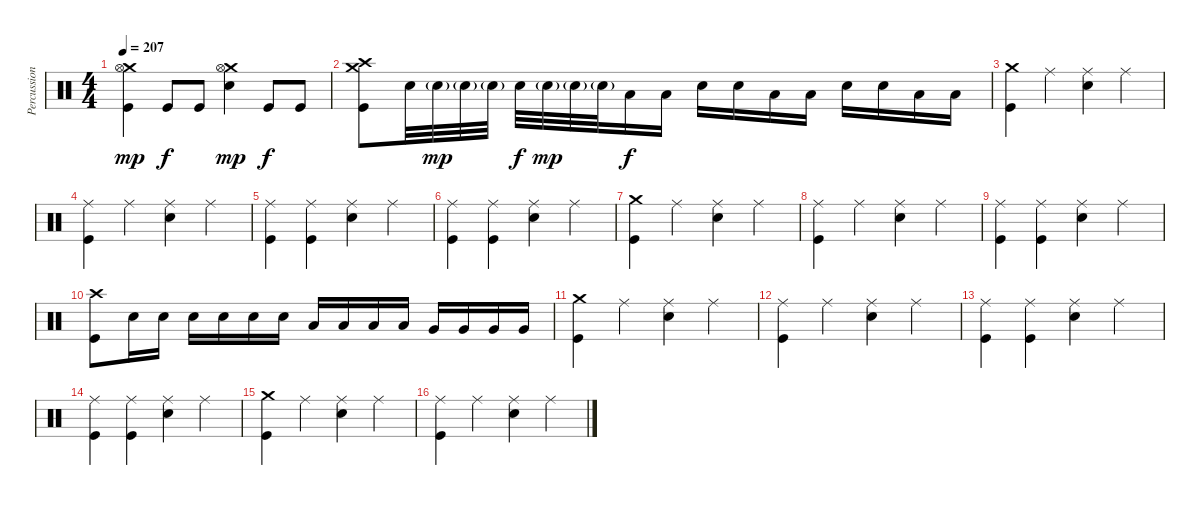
\track ("Percussion" "Percussion") {instrument percussion}
\staff {score}
\articulation defaults
\ts (4 4)
\tempo 207
\clef neutral
\ks c
("Crash medium (hit)" "Hi-Hat (open)" "Kick (hit)").4{dy mp} "Kick (hit)".8{dy f} "Kick (hit)".8 ("Crash medium (hit)" "Hi-Hat (open)" "Electric Snare (hit)").4{dy mp} "Kick (hit)".8{dy f} "Kick (hit)".8 |
("Crash medium (hit)" "Crash high (hit)" "Kick (hit)").8 "Electric Snare (hit)".32 "Electric Snare (hit)"{g}.32{dy mp} "Electric Snare (hit)"{g}.32 "Electric Snare (hit)"{g}.32 "Electric Snare (hit)".32{dy f} "Electric Snare (hit)"{g}.32{dy mp} "Electric Snare (hit)"{g}.32 "Electric Snare (hit)"{g}.32 "Low Tom (hit)".16{dy f} "Low Tom (hit)".16 "Electric Snare (hit)".16 "Electric Snare (hit)".16 "Low Tom (hit)".16 "Low Tom (hit)".16 "Electric Snare (hit)".16 "Electric Snare (hit)".16 "Low Tom (hit)".16 "Low Tom (hit)".16 |
("Crash medium (hit)" "Kick (hit)").4 "Ride (middle)".4 ("Electric Snare (hit)" "Ride (middle)").4 "Ride (middle)".4 |
("Ride (middle)" "Kick (hit)").4 "Ride (middle)".4 ("Electric Snare (hit)" "Ride (middle)").4 "Ride (middle)".4 |
("Ride (middle)" "Kick (hit)").4 ("Ride (middle)" "Kick (hit)").4 ("Electric Snare (hit)" "Ride (middle)").4 "Ride (middle)".4 |
("Ride (middle)" "Kick (hit)").4 ("Ride (middle)" "Kick (hit)").4 ("Electric Snare (hit)" "Ride (middle)").4 "Ride (middle)".4 |
("Crash medium (hit)" "Kick (hit)").4 "Ride (middle)".4 ("Electric Snare (hit)" "Ride (middle)").4 "Ride (middle)".4 |
("Ride (middle)" "Kick (hit)").4 "Ride (middle)".4 ("Electric Snare (hit)" "Ride (middle)").4 "Ride (middle)".4 |
("Ride (middle)" "Kick (hit)").4 ("Ride (middle)" "Kick (hit)").4 ("Electric Snare (hit)" "Ride (middle)").4 "Ride (middle)".4 |
("Crash high (hit)" "Kick (hit)").8 "Electric Snare (hit)".16 "Electric Snare (hit)".16 "Electric Snare (hit)".16 "Electric Snare (hit)".16 "Electric Snare (hit)".16 "Electric Snare (hit)".16 "Low Tom (hit)".16 "Low Tom (hit)".16 "Low Tom (hit)".16 "Low Tom (hit)".16 "Very Low Tom (hit)".16 "Very Low Tom (hit)".16 "Very Low Tom (hit)".16 "Very Low Tom (hit)".16 |
("Crash medium (hit)" "Kick (hit)").4 "Ride (middle)".4 ("Electric Snare (hit)" "Ride (middle)").4 "Ride (middle)".4 |
("Ride (middle)" "Kick (hit)").4 "Ride (middle)".4 ("Electric Snare (hit)" "Ride (middle)").4 "Ride (middle)".4 |
("Ride (middle)" "Kick (hit)").4 ("Ride (middle)" "Kick (hit)").4 ("Electric Snare (hit)" "Ride (middle)").4 "Ride (middle)".4 |
("Ride (middle)" "Kick (hit)").4 ("Ride (middle)" "Kick (hit)").4 ("Electric Snare (hit)" "Ride (middle)").4 "Ride (middle)".4 |
("Crash medium (hit)" "Kick (hit)").4 "Ride (middle)".4 ("Electric Snare (hit)" "Ride (middle)").4 "Ride (middle)".4 |
("Ride (middle)" "Kick (hit)").4 "Ride (middle)".4 ("Electric Snare (hit)" "Ride (middle)").4 "Ride (middle)".4
